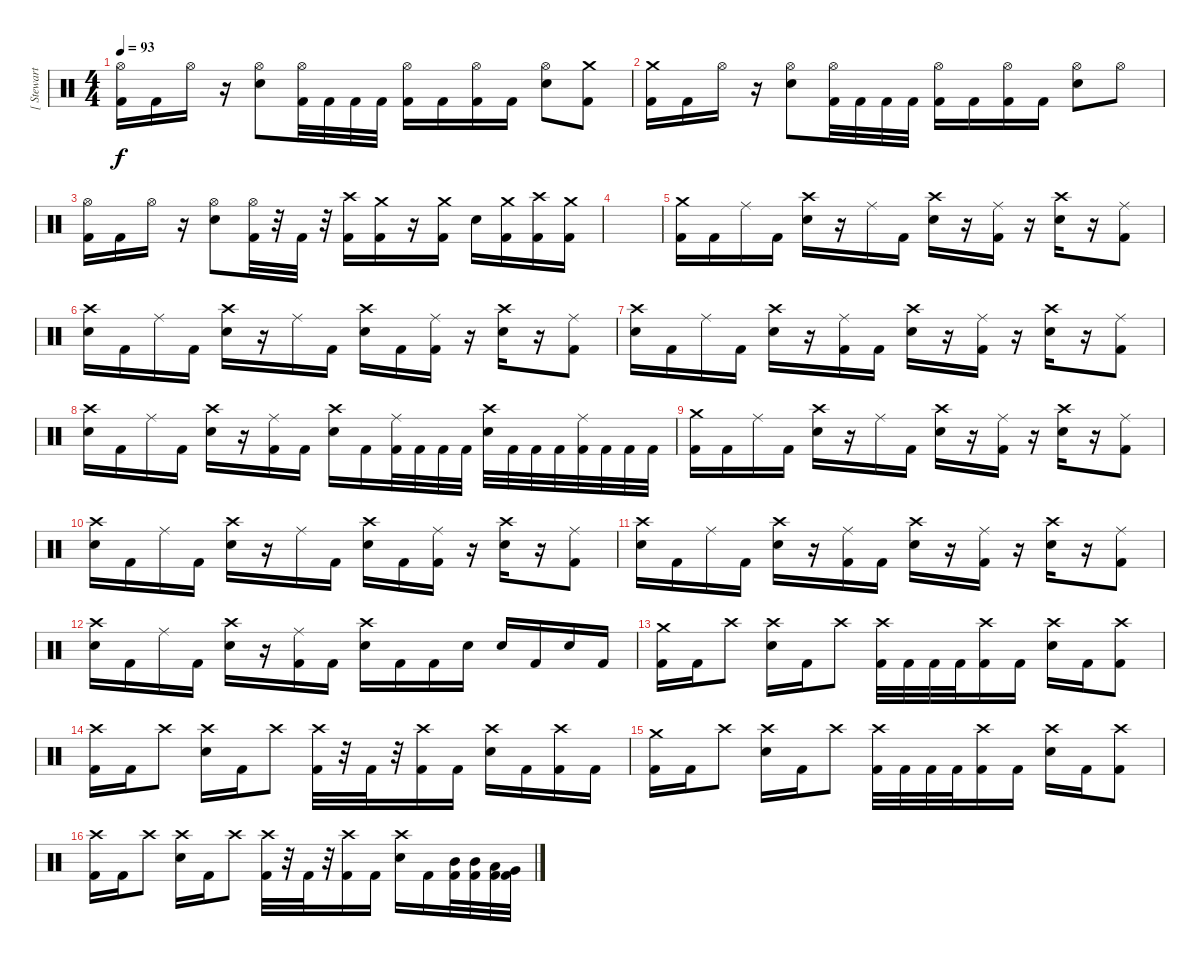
\track ("[ Stewart ]" "[ Stewart ") {instrument percussion}
\staff {score}
\articulation defaults
\ts (4 4)
\tempo 93
\clef neutral
\ks c
("Kick (hit) 2" "Hi-Hat (open)").16{dy f} "Kick (hit) 2".16 "Hi-Hat (open)".16 r.16 ("Electric Snare (hit)" "Hi-Hat (open)").8 ("Kick (hit) 2" "Hi-Hat (open)").32 "Kick (hit) 2".32 "Kick (hit) 2".32 "Kick (hit) 2".32 ("Kick (hit) 2" "Hi-Hat (open)").16 "Kick (hit) 2".16 ("Kick (hit) 2" "Hi-Hat (open)").16 "Kick (hit) 2".16 ("Electric Snare (hit)" "Hi-Hat (open)").8 ("Kick (hit) 2" "Crash medium (hit)").8 |
("Kick (hit) 2" "Crash medium (hit)").16 "Kick (hit) 2".16 "Hi-Hat (open)".16 r.16 ("Electric Snare (hit)" "Hi-Hat (open)").8 ("Kick (hit) 2" "Hi-Hat (open)").32 "Kick (hit) 2".32 "Kick (hit) 2".32 "Kick (hit) 2".32 ("Kick (hit) 2" "Hi-Hat (open)").16 "Kick (hit) 2".16 ("Kick (hit) 2" "Hi-Hat (open)").16 "Kick (hit) 2".16 ("Electric Snare (hit)" "Hi-Hat (open)").8 "Hi-Hat (open)".8 |
("Kick (hit) 2" "Hi-Hat (open)").16 "Kick (hit) 2".16 "Hi-Hat (open)".16 r.16 ("Electric Snare (hit)" "Hi-Hat (open)").8 ("Kick (hit) 2" "Hi-Hat (open)").32 r.32 "Kick (hit) 2".32 r.32 ("Kick (hit) 2" "Crash high (hit)").16 ("Kick (hit) 2" "Crash medium (hit)").16 r.16 ("Kick (hit) 2" "Crash medium (hit)").16 "Electric Snare (hit)".16 ("Kick (hit) 2" "Crash medium (hit)").16 ("Kick (hit) 2" "Crash high (hit)").16 ("Kick (hit) 2" "Crash medium (hit)").16 |
|
("Kick (hit) 2" "Crash medium (hit)").16 "Kick (hit) 2".16 "Ride (middle)".16 "Kick (hit) 2".16 ("Electric Snare (hit)" "Crash high (hit)").16 r.16 "Ride (middle)".16 "Kick (hit) 2".16 ("Electric Snare (hit)" "Crash high (hit)").16 r.16 ("Kick (hit) 2" "Ride (middle)").16 r.16 ("Electric Snare (hit)" "Crash high (hit)").16 r.16 ("Kick (hit) 2" "Ride (middle)").8 |
("Electric Snare (hit)" "Crash high (hit)").16 "Kick (hit) 2".16 "Ride (middle)".16 "Kick (hit) 2".16 ("Electric Snare (hit)" "Crash high (hit)").16 r.16 "Ride (middle)".16 "Kick (hit) 2".16 ("Electric Snare (hit)" "Crash high (hit)").16 "Kick (hit) 2".16 ("Kick (hit) 2" "Ride (middle)").16 r.16 ("Electric Snare (hit)" "Crash high (hit)").16 r.16 ("Kick (hit) 2" "Ride (middle)").8 |
("Electric Snare (hit)" "Crash high (hit)").16 "Kick (hit) 2".16 "Ride (middle)".16 "Kick (hit) 2".16 ("Electric Snare (hit)" "Crash high (hit)").16 r.16 ("Kick (hit) 2" "Ride (middle)").16 "Kick (hit) 2".16 ("Electric Snare (hit)" "Crash high (hit)").16 r.16 ("Kick (hit) 2" "Ride (middle)").16 r.16 ("Electric Snare (hit)" "Crash high (hit)").16 r.16 ("Kick (hit) 2" "Ride (middle)").8 |
("Electric Snare (hit)" "Crash high (hit)").16 "Kick (hit) 2".16 "Ride (middle)".16 "Kick (hit) 2".16 ("Electric Snare (hit)" "Crash high (hit)").16 r.16 ("Kick (hit) 2" "Ride (middle)").16 "Kick (hit) 2".16 ("Electric Snare (hit)" "Crash high (hit)").16 "Kick (hit) 2".16 ("Kick (hit) 2" "Ride (middle)").32 "Kick (hit) 2".32 "Kick (hit) 2".32 "Kick (hit) 2".32 ("Electric Snare (hit)" "Crash high (hit)").32 "Kick (hit) 2".32 "Kick (hit) 2".32 "Kick (hit) 2".32 ("Kick (hit) 2" "Ride (middle)").32 "Kick (hit) 2".32 "Kick (hit) 2".32 "Kick (hit) 2".32 |
("Kick (hit) 2" "Crash medium (hit)").16 "Kick (hit) 2".16 "Ride (middle)".16 "Kick (hit) 2".16 ("Electric Snare (hit)" "Crash high (hit)").16 r.16 "Ride (middle)".16 "Kick (hit) 2".16 ("Electric Snare (hit)" "Crash high (hit)").16 r.16 ("Kick (hit) 2" "Ride (middle)").16 r.16 ("Electric Snare (hit)" "Crash high (hit)").16 r.16 ("Kick (hit) 2" "Ride (middle)").8 |
("Electric Snare (hit)" "Crash high (hit)").16 "Kick (hit) 2".16 "Ride (middle)".16 "Kick (hit) 2".16 ("Electric Snare (hit)" "Crash high (hit)").16 r.16 "Ride (middle)".16 "Kick (hit) 2".16 ("Electric Snare (hit)" "Crash high (hit)").16 "Kick (hit) 2".16 ("Kick (hit) 2" "Ride (middle)").16 r.16 ("Electric Snare (hit)" "Crash high (hit)").16 r.16 ("Kick (hit) 2" "Ride (middle)").8 |
("Electric Snare (hit)" "Crash high (hit)").16 "Kick (hit) 2".16 "Ride (middle)".16 "Kick (hit) 2".16 ("Electric Snare (hit)" "Crash high (hit)").16 r.16 ("Kick (hit) 2" "Ride (middle)").16 "Kick (hit) 2".16 ("Electric Snare (hit)" "Crash high (hit)").16 r.16 ("Kick (hit) 2" "Ride (middle)").16 r.16 ("Electric Snare (hit)" "Crash high (hit)").16 r.16 ("Kick (hit) 2" "Ride (middle)").8 |
("Electric Snare (hit)" "Crash high (hit)").16 "Kick (hit) 2".16 "Ride (middle)".16 "Kick (hit) 2".16 ("Electric Snare (hit)" "Crash high (hit)").16 r.16 ("Kick (hit) 2" "Ride (middle)").16 "Kick (hit) 2".16 ("Electric Snare (hit)" "Crash high (hit)").16 "Kick (hit) 2".16 "Kick (hit) 2".16 "Electric Snare (hit)".16 "Electric Snare (hit)".16 "Kick (hit) 2".16 "Electric Snare (hit)".16 "Kick (hit) 2".16 |
("Kick (hit) 2" "Crash medium (hit)").16 "Kick (hit) 2".16 "Crash high (hit)".8 ("Electric Snare (hit)" "Crash high (hit)").16 "Kick (hit) 2".16 "Crash high (hit)".8 ("Kick (hit) 2" "Crash high (hit)").32 "Kick (hit) 2".32 "Kick (hit) 2".32 "Kick (hit) 2".32 ("Kick (hit) 2" "Crash high (hit)").16 "Kick (hit) 2".16 ("Electric Snare (hit)" "Crash high (hit)").16 "Kick (hit) 2".16 ("Kick (hit) 2" "Crash high (hit)").8 |
("Kick (hit) 2" "Crash high (hit)").16 "Kick (hit) 2".16 "Crash high (hit)".8 ("Electric Snare (hit)" "Crash high (hit)").16 "Kick (hit) 2".16 "Crash high (hit)".8 ("Kick (hit) 2" "Crash high (hit)").32 r.32 "Kick (hit) 2".32 r.32 ("Kick (hit) 2" "Crash high (hit)").16 "Kick (hit) 2".16 ("Electric Snare (hit)" "Crash high (hit)").16 "Kick (hit) 2".16 ("Kick (hit) 2" "Crash high (hit)").16 "Kick (hit) 2".16 |
("Kick (hit) 2" "Crash medium (hit)").16 "Kick (hit) 2".16 "Crash high (hit)".8 ("Electric Snare (hit)" "Crash high (hit)").16 "Kick (hit) 2".16 "Crash high (hit)".8 ("Kick (hit) 2" "Crash high (hit)").32 "Kick (hit) 2".32 "Kick (hit) 2".32 "Kick (hit) 2".32 ("Kick (hit) 2" "Crash high (hit)").16 "Kick (hit) 2".16 ("Electric Snare (hit)" "Crash high (hit)").16 "Kick (hit) 2".16 ("Kick (hit) 2" "Crash high (hit)").8 |
("Kick (hit) 2" "Crash high (hit)").16 "Kick (hit) 2".16 "Crash high (hit)".8 ("Electric Snare (hit)" "Crash high (hit)").16 "Kick (hit) 2".16 "Crash high (hit)".8 ("Kick (hit) 2" "Crash high (hit)").32 r.32 "Kick (hit) 2".32 r.32 ("Kick (hit) 2" "Crash high (hit)").16 "Kick (hit) 2".16 ("Electric Snare (hit)" "Crash high (hit)").16 "Kick (hit) 2".16 ("Mid Tom (hit)" "Kick (hit) 2").32 ("Mid Tom (hit)" "Kick (hit) 2").32 ("Low Tom (hit)" "Kick (hit) 2").32 ("Very Low Tom (hit)" "Kick (hit) 2").32
